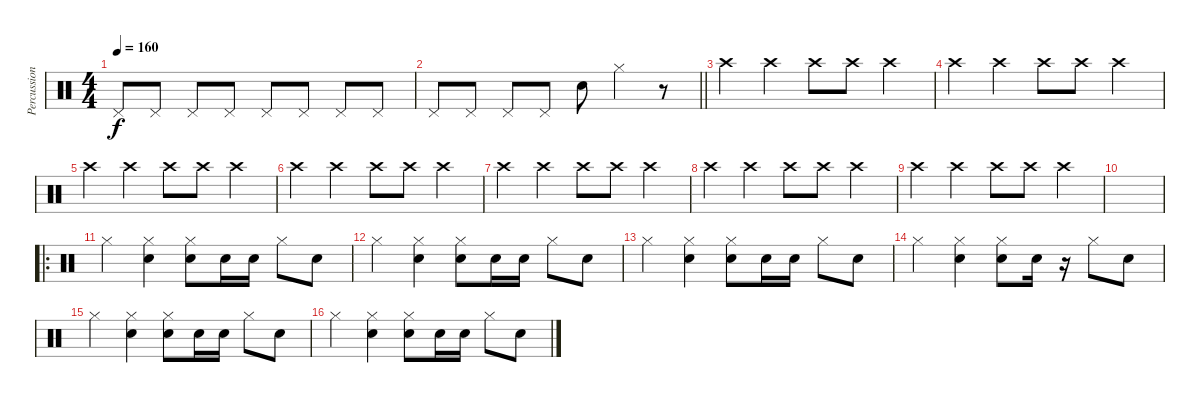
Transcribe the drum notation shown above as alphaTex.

\track ("Percussion" "Percussion") {instrument percussion}
\staff {score}
\articulation defaults
\ts (4 4)
\tempo 160
\clef neutral
\ks c "Pedal Hi-Hat (hit)".8{dy f} "Pedal Hi-Hat (hit)".8 "Pedal Hi-Hat (hit)".8 "Pedal Hi-Hat (hit)".8 "Pedal Hi-Hat (hit)".8 "Pedal Hi-Hat (hit)".8 "Pedal Hi-Hat (hit)".8 "Pedal Hi-Hat (hit)".8
|
\barLineRight lightlight "Pedal Hi-Hat (hit)".8 "Pedal Hi-Hat (hit)".8 "Pedal Hi-Hat (hit)".8 "Pedal Hi-Hat (hit)".8 "Electric Snare (hit)".8 "Hi-Hat (closed)".4
r.8 |
"Crash high (hit)".4 "Crash high (hit)".4 "Crash high (hit)".8 "Crash high (hit)".8 "Crash high (hit)".4 |
"Crash high (hit)".4 "Crash high (hit)".4 "Crash high (hit)".8 "Crash high (hit)".8 "Crash high (hit)".4 |
"Crash high (hit)".4 "Crash high (hit)".4 "Crash high (hit)".8 "Crash high (hit)".8 "Crash high (hit)".4 |
"Crash high (hit)".4 "Crash high (hit)".4 "Crash high (hit)".8 "Crash high (hit)".8 "Crash high (hit)".4 |
"Crash high (hit)".4 "Crash high (hit)".4 "Crash high (hit)".8 "Crash high (hit)".8 "Crash high (hit)".4 |
"Crash high (hit)".4 "Crash high (hit)".4 "Crash high (hit)".8 "Crash high (hit)".8 "Crash high (hit)".4 |
"Crash high (hit)".4 "Crash high (hit)".4 "Crash high (hit)".8 "Crash high (hit)".8 "Crash high (hit)".4 |
|
\ro "Hi-Hat (closed)".4
("Hi-Hat (closed)" "Electric Snare (hit)").4 ("Hi-Hat (closed)" "Electric Snare (hit)").8 "Electric Snare (hit)".16 "Electric Snare (hit)".16 "Hi-Hat (closed)".8 "Electric Snare (hit)".8 |
"Hi-Hat (closed)".4 ("Hi-Hat (closed)" "Electric Snare (hit)").4 ("Hi-Hat (closed)" "Electric Snare (hit)").8 "Electric Snare (hit)".16 "Electric Snare (hit)".16 "Hi-Hat (closed)".8 "Electric Snare (hit)".8 |
"Hi-Hat (closed)".4 ("Hi-Hat (closed)" "Electric Snare (hit)").4 ("Hi-Hat (closed)" "Electric Snare (hit)").8 "Electric Snare (hit)".16 "Electric Snare (hit)".16 "Hi-Hat (closed)".8 "Electric Snare (hit)".8 |
"Hi-Hat (closed)".4 ("Hi-Hat (closed)" "Electric Snare (hit)").4 ("Hi-Hat (closed)" "Electric Snare (hit)").8 "Electric Snare (hit)".16 r.16 "Hi-Hat (closed)".8 "Electric Snare (hit)".8 |
"Hi-Hat (closed)".4 ("Hi-Hat (closed)" "Electric Snare (hit)").4 ("Hi-Hat (closed)" "Electric Snare (hit)").8 "Electric Snare (hit)".16 "Electric Snare (hit)".16 "Hi-Hat (closed)".8 "Electric Snare (hit)".8 |
"Hi-Hat (closed)".4 ("Hi-Hat (closed)" "Electric Snare (hit)").4 ("Hi-Hat (closed)" "Electric Snare (hit)").8 "Electric Snare (hit)".16 "Electric Snare (hit)".16 "Hi-Hat (closed)".8 "Electric Snare (hit)".8
